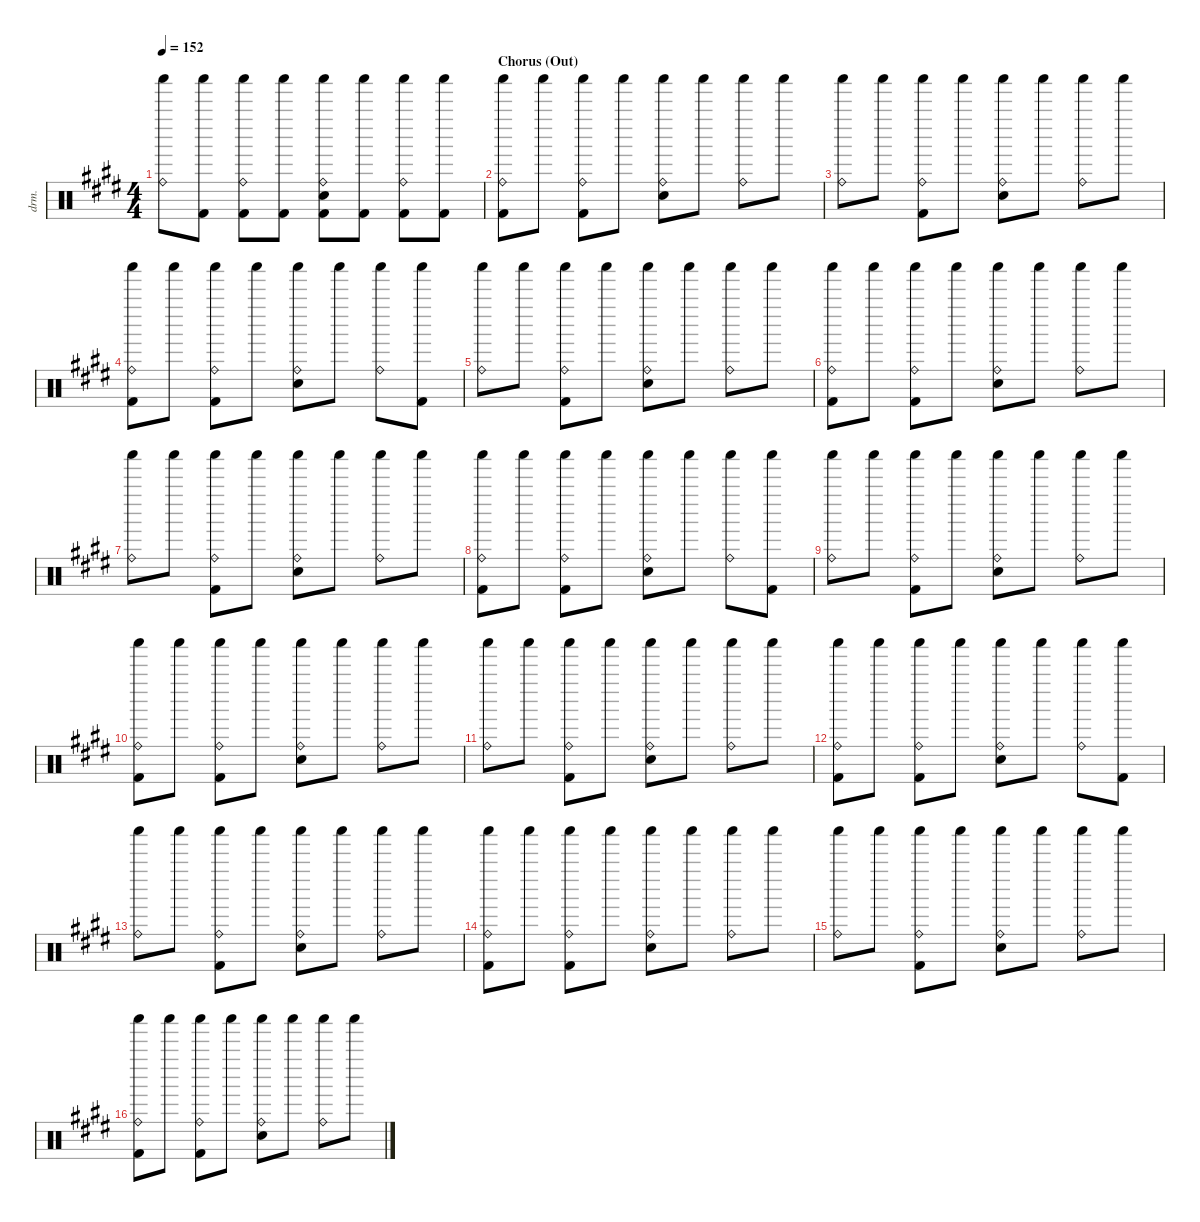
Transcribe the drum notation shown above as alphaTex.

\defaultSystemsLayout 4
\hideDynamics
\bracketExtendMode nobrackets
\otherSystemsTrackNameOrientation horizontal
\track ("Drums" "drm.") {instrument percussion}
\staff {score}
\articulation defaults
\ts (4 4)
\tempo 152
\clef neutral
\ks c#minor
("Ride (bell)"{acc forcenatural} "Shaker (hit)"{acc forcenatural}).8{dy f} ("Kick (hit) 2"{acc forcenatural} "Shaker (hit)"{acc forcenatural}).8 ("Ride (bell)"{acc forcenatural} "Kick (hit) 2"{acc forcenatural} "Shaker (hit)"{acc forcenatural}).8 ("Kick (hit) 2"{acc forcenatural} "Shaker (hit)"{acc forcenatural}).8 ("Ride (bell)"{acc forcenatural} "Snare (hit) 2"{acc forcenatural} "Kick (hit) 2"{acc forcenatural} "Shaker (hit)"{acc forcenatural}).8 ("Kick (hit) 2"{acc forcenatural} "Shaker (hit)"{acc forcenatural}).8 ("Ride (bell)"{acc forcenatural} "Kick (hit) 2"{acc forcenatural} "Shaker (hit)"{acc forcenatural}).8 ("Kick (hit) 2"{acc forcenatural} "Shaker (hit)"{acc forcenatural}).8 |
\section ("" "Chorus (Out)")
("Ride (bell)"{acc forcenatural} "Kick (hit) 2"{acc forcenatural} "Shaker (hit)"{acc forcenatural}).8 "Shaker (hit)"{acc forcenatural}.8 ("Ride (bell)"{acc forcenatural} "Kick (hit) 2"{acc forcenatural} "Shaker (hit)"{acc forcenatural}).8 "Shaker (hit)"{acc forcenatural}.8 ("Ride (bell)"{acc forcenatural} "Snare (hit) 2"{acc forcenatural} "Shaker (hit)"{acc forcenatural}).8 "Shaker (hit)"{acc forcenatural}.8 ("Ride (bell)"{acc forcenatural} "Shaker (hit)"{acc forcenatural}).8 "Shaker (hit)"{acc forcenatural}.8 |
("Ride (bell)"{acc forcenatural} "Shaker (hit)"{acc forcenatural}).8 "Shaker (hit)"{acc forcenatural}.8 ("Ride (bell)"{acc forcenatural} "Kick (hit) 2"{acc forcenatural} "Shaker (hit)"{acc forcenatural}).8 "Shaker (hit)"{acc forcenatural}.8 ("Ride (bell)"{acc forcenatural} "Snare (hit) 2"{acc forcenatural} "Shaker (hit)"{acc forcenatural}).8 "Shaker (hit)"{acc forcenatural}.8 ("Ride (bell)"{acc forcenatural} "Shaker (hit)"{acc forcenatural}).8 "Shaker (hit)"{acc forcenatural}.8 |
("Ride (bell)"{acc forcenatural} "Kick (hit) 2"{acc forcenatural} "Shaker (hit)"{acc forcenatural}).8 "Shaker (hit)"{acc forcenatural}.8 ("Ride (bell)"{acc forcenatural} "Kick (hit) 2"{acc forcenatural} "Shaker (hit)"{acc forcenatural}).8 "Shaker (hit)"{acc forcenatural}.8 ("Ride (bell)"{acc forcenatural} "Snare (hit) 2"{acc forcenatural} "Shaker (hit)"{acc forcenatural}).8 "Shaker (hit)"{acc forcenatural}.8 ("Ride (bell)"{acc forcenatural} "Shaker (hit)"{acc forcenatural}).8 ("Kick (hit) 2"{acc forcenatural} "Shaker (hit)"{acc forcenatural}).8 |
("Ride (bell)"{acc forcenatural} "Shaker (hit)"{acc forcenatural}).8 "Shaker (hit)"{acc forcenatural}.8 ("Ride (bell)"{acc forcenatural} "Kick (hit) 2"{acc forcenatural} "Shaker (hit)"{acc forcenatural}).8 "Shaker (hit)"{acc forcenatural}.8 ("Ride (bell)"{acc forcenatural} "Snare (hit) 2"{acc forcenatural} "Shaker (hit)"{acc forcenatural}).8 "Shaker (hit)"{acc forcenatural}.8 ("Ride (bell)"{acc forcenatural} "Shaker (hit)"{acc forcenatural}).8 "Shaker (hit)"{acc forcenatural}.8 |
("Ride (bell)"{acc forcenatural} "Kick (hit) 2"{acc forcenatural} "Shaker (hit)"{acc forcenatural}).8 "Shaker (hit)"{acc forcenatural}.8 ("Ride (bell)"{acc forcenatural} "Kick (hit) 2"{acc forcenatural} "Shaker (hit)"{acc forcenatural}).8 "Shaker (hit)"{acc forcenatural}.8 ("Ride (bell)"{acc forcenatural} "Snare (hit) 2"{acc forcenatural} "Shaker (hit)"{acc forcenatural}).8 "Shaker (hit)"{acc forcenatural}.8 ("Ride (bell)"{acc forcenatural} "Shaker (hit)"{acc forcenatural}).8 "Shaker (hit)"{acc forcenatural}.8 |
("Ride (bell)"{acc forcenatural} "Shaker (hit)"{acc forcenatural}).8 "Shaker (hit)"{acc forcenatural}.8 ("Ride (bell)"{acc forcenatural} "Kick (hit) 2"{acc forcenatural} "Shaker (hit)"{acc forcenatural}).8 "Shaker (hit)"{acc forcenatural}.8 ("Ride (bell)"{acc forcenatural} "Snare (hit) 2"{acc forcenatural} "Shaker (hit)"{acc forcenatural}).8 "Shaker (hit)"{acc forcenatural}.8 ("Ride (bell)"{acc forcenatural} "Shaker (hit)"{acc forcenatural}).8 "Shaker (hit)"{acc forcenatural}.8 |
("Ride (bell)"{acc forcenatural} "Kick (hit) 2"{acc forcenatural} "Shaker (hit)"{acc forcenatural}).8 "Shaker (hit)"{acc forcenatural}.8 ("Ride (bell)"{acc forcenatural} "Kick (hit) 2"{acc forcenatural} "Shaker (hit)"{acc forcenatural}).8 "Shaker (hit)"{acc forcenatural}.8 ("Ride (bell)"{acc forcenatural} "Snare (hit) 2"{acc forcenatural} "Shaker (hit)"{acc forcenatural}).8 "Shaker (hit)"{acc forcenatural}.8 ("Ride (bell)"{acc forcenatural} "Shaker (hit)"{acc forcenatural}).8 ("Kick (hit) 2"{acc forcenatural} "Shaker (hit)"{acc forcenatural}).8 |
("Ride (bell)"{acc forcenatural} "Shaker (hit)"{acc forcenatural}).8 "Shaker (hit)"{acc forcenatural}.8 ("Ride (bell)"{acc forcenatural} "Kick (hit) 2"{acc forcenatural} "Shaker (hit)"{acc forcenatural}).8 "Shaker (hit)"{acc forcenatural}.8 ("Ride (bell)"{acc forcenatural} "Snare (hit) 2"{acc forcenatural} "Shaker (hit)"{acc forcenatural}).8 "Shaker (hit)"{acc forcenatural}.8 ("Ride (bell)"{acc forcenatural} "Shaker (hit)"{acc forcenatural}).8 "Shaker (hit)"{acc forcenatural}.8 |
("Ride (bell)"{acc forcenatural} "Kick (hit) 2"{acc forcenatural} "Shaker (hit)"{acc forcenatural}).8 "Shaker (hit)"{acc forcenatural}.8 ("Ride (bell)"{acc forcenatural} "Kick (hit) 2"{acc forcenatural} "Shaker (hit)"{acc forcenatural}).8 "Shaker (hit)"{acc forcenatural}.8 ("Ride (bell)"{acc forcenatural} "Snare (hit) 2"{acc forcenatural} "Shaker (hit)"{acc forcenatural}).8 "Shaker (hit)"{acc forcenatural}.8 ("Ride (bell)"{acc forcenatural} "Shaker (hit)"{acc forcenatural}).8 "Shaker (hit)"{acc forcenatural}.8 |
("Ride (bell)"{acc forcenatural} "Shaker (hit)"{acc forcenatural}).8 "Shaker (hit)"{acc forcenatural}.8 ("Ride (bell)"{acc forcenatural} "Kick (hit) 2"{acc forcenatural} "Shaker (hit)"{acc forcenatural}).8 "Shaker (hit)"{acc forcenatural}.8 ("Ride (bell)"{acc forcenatural} "Snare (hit) 2"{acc forcenatural} "Shaker (hit)"{acc forcenatural}).8 "Shaker (hit)"{acc forcenatural}.8 ("Ride (bell)"{acc forcenatural} "Shaker (hit)"{acc forcenatural}).8 "Shaker (hit)"{acc forcenatural}.8 |
("Ride (bell)"{acc forcenatural} "Kick (hit) 2"{acc forcenatural} "Shaker (hit)"{acc forcenatural}).8 "Shaker (hit)"{acc forcenatural}.8 ("Ride (bell)"{acc forcenatural} "Kick (hit) 2"{acc forcenatural} "Shaker (hit)"{acc forcenatural}).8 "Shaker (hit)"{acc forcenatural}.8 ("Ride (bell)"{acc forcenatural} "Snare (hit) 2"{acc forcenatural} "Shaker (hit)"{acc forcenatural}).8 "Shaker (hit)"{acc forcenatural}.8 ("Ride (bell)"{acc forcenatural} "Shaker (hit)"{acc forcenatural}).8 ("Kick (hit) 2"{acc forcenatural} "Shaker (hit)"{acc forcenatural}).8 |
("Ride (bell)"{acc forcenatural} "Shaker (hit)"{acc forcenatural}).8 "Shaker (hit)"{acc forcenatural}.8 ("Ride (bell)"{acc forcenatural} "Kick (hit) 2"{acc forcenatural} "Shaker (hit)"{acc forcenatural}).8 "Shaker (hit)"{acc forcenatural}.8 ("Ride (bell)"{acc forcenatural} "Snare (hit) 2"{acc forcenatural} "Shaker (hit)"{acc forcenatural}).8 "Shaker (hit)"{acc forcenatural}.8 ("Ride (bell)"{acc forcenatural} "Shaker (hit)"{acc forcenatural}).8 "Shaker (hit)"{acc forcenatural}.8 |
("Ride (bell)"{acc forcenatural} "Kick (hit) 2"{acc forcenatural} "Shaker (hit)"{acc forcenatural}).8 "Shaker (hit)"{acc forcenatural}.8 ("Ride (bell)"{acc forcenatural} "Kick (hit) 2"{acc forcenatural} "Shaker (hit)"{acc forcenatural}).8 "Shaker (hit)"{acc forcenatural}.8 ("Ride (bell)"{acc forcenatural} "Snare (hit) 2"{acc forcenatural} "Shaker (hit)"{acc forcenatural}).8 "Shaker (hit)"{acc forcenatural}.8 ("Ride (bell)"{acc forcenatural} "Shaker (hit)"{acc forcenatural}).8 "Shaker (hit)"{acc forcenatural}.8 |
("Ride (bell)"{acc forcenatural} "Shaker (hit)"{acc forcenatural}).8 "Shaker (hit)"{acc forcenatural}.8 ("Ride (bell)"{acc forcenatural} "Kick (hit) 2"{acc forcenatural} "Shaker (hit)"{acc forcenatural}).8 "Shaker (hit)"{acc forcenatural}.8 ("Ride (bell)"{acc forcenatural} "Snare (hit) 2"{acc forcenatural} "Shaker (hit)"{acc forcenatural}).8 "Shaker (hit)"{acc forcenatural}.8 ("Ride (bell)"{acc forcenatural} "Shaker (hit)"{acc forcenatural}).8 "Shaker (hit)"{acc forcenatural}.8 |
("Ride (bell)"{acc forcenatural} "Kick (hit) 2"{acc forcenatural} "Shaker (hit)"{acc forcenatural}).8 "Shaker (hit)"{acc forcenatural}.8 ("Ride (bell)"{acc forcenatural} "Kick (hit) 2"{acc forcenatural} "Shaker (hit)"{acc forcenatural}).8 "Shaker (hit)"{acc forcenatural}.8 ("Ride (bell)"{acc forcenatural} "Snare (hit) 2"{acc forcenatural} "Shaker (hit)"{acc forcenatural}).8 "Shaker (hit)"{acc forcenatural}.8 ("Ride (bell)"{acc forcenatural} "Shaker (hit)"{acc forcenatural}).8 "Shaker (hit)"{acc forcenatural}.8
